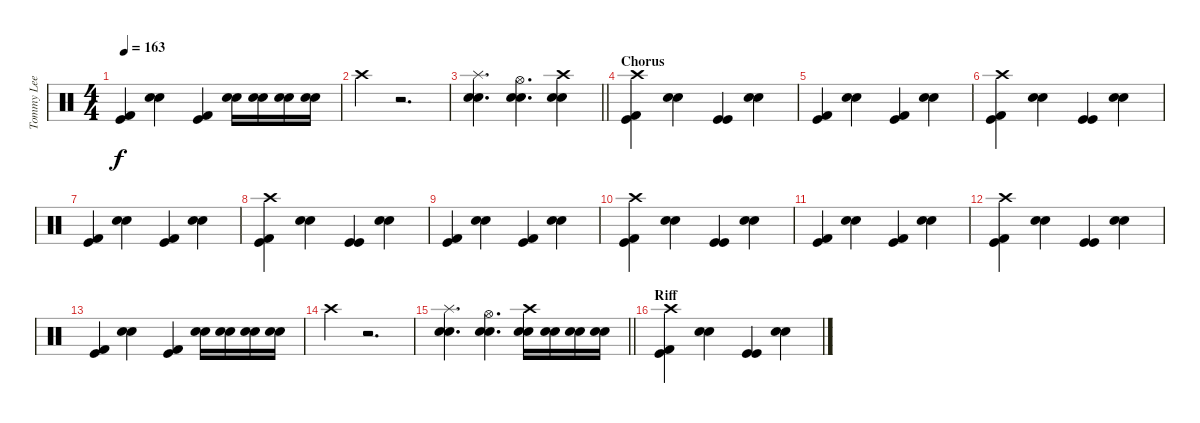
\track ("Tommy Lee" "Tommy Lee") {instrument percussion}
\staff {score}
\articulation defaults
\ts (4 4)
\tempo 163
\clef neutral
\ks c
("Kick (hit) 2" "Kick (hit)").4{dy f} ("Electric Snare (hit)" "Snare (hit) 2").4 ("Kick (hit) 2" "Kick (hit)").4 ("Electric Snare (hit)" "Snare (hit) 2").16 ("Electric Snare (hit)" "Snare (hit) 2").16 ("Electric Snare (hit)" "Snare (hit) 2").16 ("Electric Snare (hit)" "Snare (hit) 2").16 |
"Crash high (hit)".4 r.2{d} |
\barLineRight lightlight
("Splash (hit)" "Electric Snare (hit)" "Snare (hit) 2").4{d} ("Hi-Hat (open)" "Electric Snare (hit)" "Snare (hit) 2").4{d} ("Crash high (hit)" "Electric Snare (hit)" "Snare (hit) 2").4 |
\section ("" "Chorus")
("Crash high (hit)" "Kick (hit) 2" "Kick (hit)").4 ("Electric Snare (hit)" "Snare (hit) 2").4 ("Kick (hit)" "Kick (hit)").4 ("Electric Snare (hit)" "Snare (hit) 2").4 |
("Kick (hit) 2" "Kick (hit)").4 ("Electric Snare (hit)" "Snare (hit) 2").4 ("Kick (hit) 2" "Kick (hit)").4 ("Electric Snare (hit)" "Snare (hit) 2").4 |
("Crash high (hit)" "Kick (hit) 2" "Kick (hit)").4 ("Electric Snare (hit)" "Snare (hit) 2").4 ("Kick (hit)" "Kick (hit)").4 ("Electric Snare (hit)" "Snare (hit) 2").4 |
("Kick (hit) 2" "Kick (hit)").4 ("Electric Snare (hit)" "Snare (hit) 2").4 ("Kick (hit) 2" "Kick (hit)").4 ("Electric Snare (hit)" "Snare (hit) 2").4 |
("Crash high (hit)" "Kick (hit) 2" "Kick (hit)").4 ("Electric Snare (hit)" "Snare (hit) 2").4 ("Kick (hit)" "Kick (hit)").4 ("Electric Snare (hit)" "Snare (hit) 2").4 |
("Kick (hit) 2" "Kick (hit)").4 ("Electric Snare (hit)" "Snare (hit) 2").4 ("Kick (hit) 2" "Kick (hit)").4 ("Electric Snare (hit)" "Snare (hit) 2").4 |
("Crash high (hit)" "Kick (hit) 2" "Kick (hit)").4 ("Electric Snare (hit)" "Snare (hit) 2").4 ("Kick (hit)" "Kick (hit)").4 ("Electric Snare (hit)" "Snare (hit) 2").4 |
("Kick (hit) 2" "Kick (hit)").4 ("Electric Snare (hit)" "Snare (hit) 2").4 ("Kick (hit) 2" "Kick (hit)").4 ("Electric Snare (hit)" "Snare (hit) 2").4 |
("Crash high (hit)" "Kick (hit) 2" "Kick (hit)").4 ("Electric Snare (hit)" "Snare (hit) 2").4 ("Kick (hit)" "Kick (hit)").4 ("Electric Snare (hit)" "Snare (hit) 2").4 |
("Kick (hit) 2" "Kick (hit)").4 ("Electric Snare (hit)" "Snare (hit) 2").4 ("Kick (hit) 2" "Kick (hit)").4 ("Electric Snare (hit)" "Snare (hit) 2").16 ("Electric Snare (hit)" "Snare (hit) 2").16 ("Electric Snare (hit)" "Snare (hit) 2").16 ("Electric Snare (hit)" "Snare (hit) 2").16 |
"Crash high (hit)".4 r.2{d} |
\barLineRight lightlight
("Splash (hit)" "Electric Snare (hit)" "Snare (hit) 2").4{d} ("Hi-Hat (open)" "Electric Snare (hit)" "Snare (hit) 2").4{d} ("Crash high (hit)" "Electric Snare (hit)" "Snare (hit) 2").16 ("Electric Snare (hit)" "Snare (hit) 2").16 ("Electric Snare (hit)" "Snare (hit) 2").16 ("Electric Snare (hit)" "Snare (hit) 2").16 |
\section ("" "Riff")
("Crash high (hit)" "Kick (hit) 2" "Kick (hit)").4 ("Electric Snare (hit)" "Snare (hit) 2").4 ("Kick (hit)" "Kick (hit)").4 ("Electric Snare (hit)" "Snare (hit) 2").4
